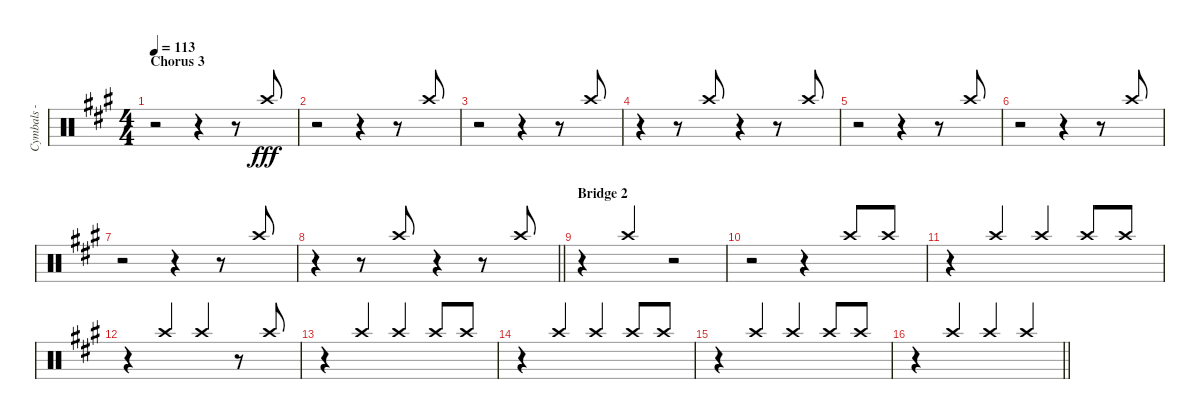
\track ("Cymbals - crash" "Cymbals - ") {instrument percussion}
\staff {score}
\articulation defaults
\ts (4 4)
\section ("" "Chorus 3")
\tempo 113
\clef neutral
\ks f#minor
r.2{dy fff} r.4 r.8 "Crash high (hit)".8{beam Up} |
r.2 r.4 r.8 "Crash high (hit)".8{beam Up} |
r.2 r.4 r.8 "Crash high (hit)".8{beam Up} |
r.4 r.8 "Crash high (hit)".8{beam Up} r.4 r.8 "Crash high (hit)".8{beam Up} |
r.2 r.4 r.8 "Crash high (hit)".8{beam Up} |
r.2 r.4 r.8 "Crash high (hit)".8{beam Up} |
r.2 r.4 r.8 "Crash high (hit)".8{beam Up} |
\barLineRight lightlight
r.4 r.8 "Crash high (hit)".8{beam Up} r.4 r.8 "Crash high (hit)".8{beam Up} |
\section ("" "Bridge 2")
r.4 "Crash high (hit)".4{beam Up} r.2 |
r.2 r.4 "Crash high (hit)".8{beam Up} "Crash high (hit)".8{beam Up} |
r.4 "Crash high (hit)".4{beam Up} "Crash high (hit)".4{beam Up} "Crash high (hit)".8{beam Up} "Crash high (hit)".8{beam Up} |
r.4 "Crash high (hit)".4{beam Up} "Crash high (hit)".4{beam Up} r.8 "Crash high (hit)".8{beam Up} |
r.4 "Crash high (hit)".4{beam Up} "Crash high (hit)".4{beam Up} "Crash high (hit)".8{beam Up} "Crash high (hit)".8{beam Up} |
r.4 "Crash high (hit)".4{beam Up} "Crash high (hit)".4{beam Up} "Crash high (hit)".8{beam Up} "Crash high (hit)".8{beam Up} |
r.4 "Crash high (hit)".4{beam Up} "Crash high (hit)".4{beam Up} "Crash high (hit)".8{beam Up} "Crash high (hit)".8{beam Up} |
\barLineRight lightlight
r.4 "Crash high (hit)".4{beam Up} "Crash high (hit)".4{beam Up} "Crash high (hit)".4{beam Up}
